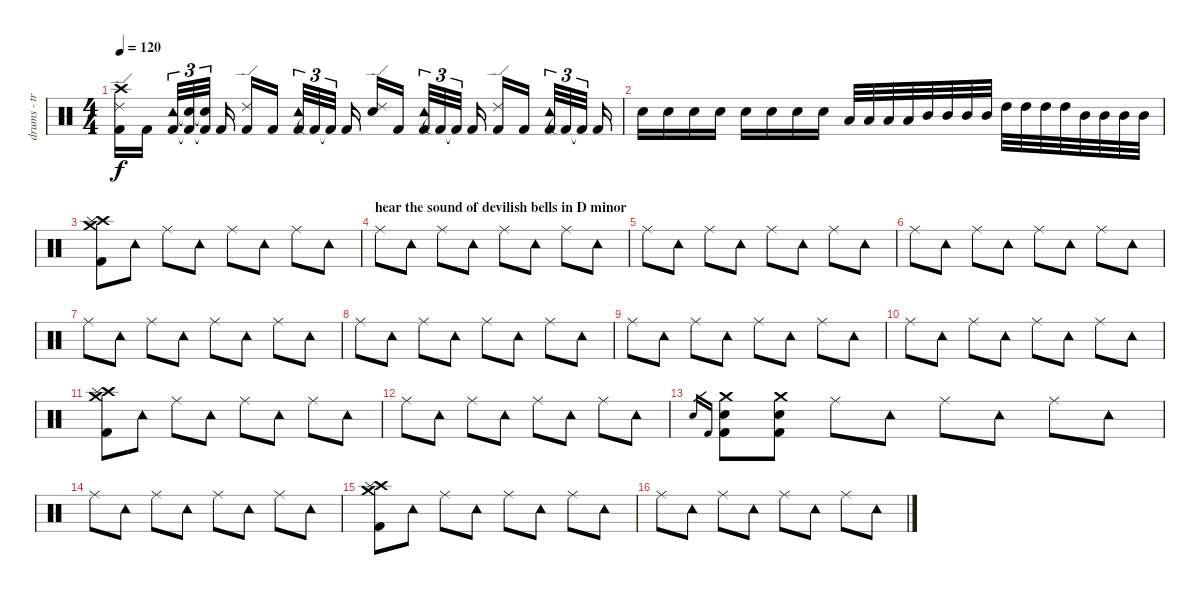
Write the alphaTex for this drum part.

\track ("drums - trash and prog sections" "drums - tr") {instrument percussion}
\staff {score}
\articulation defaults
\ts (4 4)
\tempo 120
\clef neutral
\ks c
("Crash high (hit)" "Ride (edge) 2" "Kick (hit) 2").16{dy f} "Kick (hit) 2".16 ("Tambourine (hit)" "Kick (hit) 2").32{tu (3 2)} ("Snare (hit)"{t} "Kick (hit) 2"{t}).32{tu (3 2)} ("Snare (hit)"{t} "Kick (hit) 2"{t}).32{tu (3 2)} "Kick (hit) 2".16 ("Ride (edge) 2" "Kick (hit) 2").16 "Kick (hit) 2".16 ("Tambourine (hit)" "Kick (hit) 2").32{tu (3 2)} "Kick (hit) 2"{t}.32{tu (3 2)} "Kick (hit) 2"{t}.32{tu (3 2)} "Kick (hit) 2".16 ("Snare (hit) 2" "Ride (edge) 2").16 "Kick (hit) 2".16 ("Tambourine (hit)" "Kick (hit) 2").32{tu (3 2)} "Kick (hit) 2"{t}.32{tu (3 2)} "Kick (hit) 2"{t}.32{tu (3 2)} "Kick (hit) 2".16 ("Ride (edge) 2" "Kick (hit) 2").16 "Kick (hit) 2".16 ("Tambourine (hit)" "Kick (hit) 2").32{tu (3 2)} "Kick (hit) 2"{t}.32{tu (3 2)} "Kick (hit) 2"{t}.32{tu (3 2)} "Kick (hit) 2".16 |
"Snare (hit) 2".16 "Snare (hit) 2".16 "Snare (hit) 2".16 "Snare (hit) 2".16 "Snare (hit) 2".16 "Snare (hit) 2".16 "Snare (hit) 2".16 "Snare (hit) 2".16 "Low Tom (hit)".32 "Low Tom (hit)".32 "Low Tom (hit)".32 "Low Tom (hit)".32 "Mid Tom (hit)".32 "Mid Tom (hit)".32 "Mid Tom (hit)".32 "Mid Tom (hit)".32 "High Tom (hit)".32 "High Tom (hit)".32 "High Tom (hit)".32 "High Tom (hit)".32 "Mid Tom (hit)".32 "Mid Tom (hit)".32 "Mid Tom (hit)".32 "Mid Tom (hit)".32 |
("Crash medium (hit)" "Crash high (hit)" "Splash (hit)" "Kick (hit) 2").8 "Tambourine (hit)".8 "Ride (middle)".8 "Tambourine (hit)".8 "Ride (middle)".8 "Tambourine (hit)".8 "Ride (middle)".8 "Tambourine (hit)".8 |
\section ("" "hear the sound of devilish bells in D minor")
"Ride (middle)".8 "Tambourine (hit)".8 "Ride (middle)".8 "Tambourine (hit)".8 "Ride (middle)".8 "Tambourine (hit)".8 "Ride (middle)".8 "Tambourine (hit)".8 |
"Ride (middle)".8 "Tambourine (hit)".8 "Ride (middle)".8 "Tambourine (hit)".8 "Ride (middle)".8 "Tambourine (hit)".8 "Ride (middle)".8 "Tambourine (hit)".8 |
"Ride (middle)".8 "Tambourine (hit)".8 "Ride (middle)".8 "Tambourine (hit)".8 "Ride (middle)".8 "Tambourine (hit)".8 "Ride (middle)".8 "Tambourine (hit)".8 |
"Ride (middle)".8 "Tambourine (hit)".8 "Ride (middle)".8 "Tambourine (hit)".8 "Ride (middle)".8 "Tambourine (hit)".8 "Ride (middle)".8 "Tambourine (hit)".8 |
"Ride (middle)".8 "Tambourine (hit)".8 "Ride (middle)".8 "Tambourine (hit)".8 "Ride (middle)".8 "Tambourine (hit)".8 "Ride (middle)".8 "Tambourine (hit)".8 |
"Ride (middle)".8 "Tambourine (hit)".8 "Ride (middle)".8 "Tambourine (hit)".8 "Ride (middle)".8 "Tambourine (hit)".8 "Ride (middle)".8 "Tambourine (hit)".8 |
"Ride (middle)".8 "Tambourine (hit)".8 "Ride (middle)".8 "Tambourine (hit)".8 "Ride (middle)".8 "Tambourine (hit)".8 "Ride (middle)".8 "Tambourine (hit)".8 |
("Crash medium (hit)" "Crash high (hit)" "Splash (hit)" "Kick (hit) 2").8 "Tambourine (hit)".8 "Ride (middle)".8 "Tambourine (hit)".8 "Ride (middle)".8 "Tambourine (hit)".8 "Ride (middle)".8 "Tambourine (hit)".8 |
"Ride (middle)".8 "Tambourine (hit)".8 "Ride (middle)".8 "Tambourine (hit)".8 "Ride (middle)".8 "Tambourine (hit)".8 "Ride (middle)".8 "Tambourine (hit)".8 |
"Snare (hit) 2".16{gr} "Kick (hit) 2".16{gr} ("Crash medium (hit)" "Snare (hit) 2" "Kick (hit) 2").8 ("Crash medium (hit)" "Snare (hit) 2" "Kick (hit) 2").8 "Ride (middle)".8 "Tambourine (hit)".8 "Ride (middle)".8 "Tambourine (hit)".8 "Ride (middle)".8 "Tambourine (hit)".8 |
"Ride (middle)".8 "Tambourine (hit)".8 "Ride (middle)".8 "Tambourine (hit)".8 "Ride (middle)".8 "Tambourine (hit)".8 "Ride (middle)".8 "Tambourine (hit)".8 |
("Crash medium (hit)" "Crash high (hit)" "Splash (hit)" "Kick (hit) 2").8 "Tambourine (hit)".8 "Ride (middle)".8 "Tambourine (hit)".8 "Ride (middle)".8 "Tambourine (hit)".8 "Ride (middle)".8 "Tambourine (hit)".8 |
"Ride (middle)".8 "Tambourine (hit)".8 "Ride (middle)".8 "Tambourine (hit)".8 "Ride (middle)".8 "Tambourine (hit)".8 "Ride (middle)".8 "Tambourine (hit)".8
